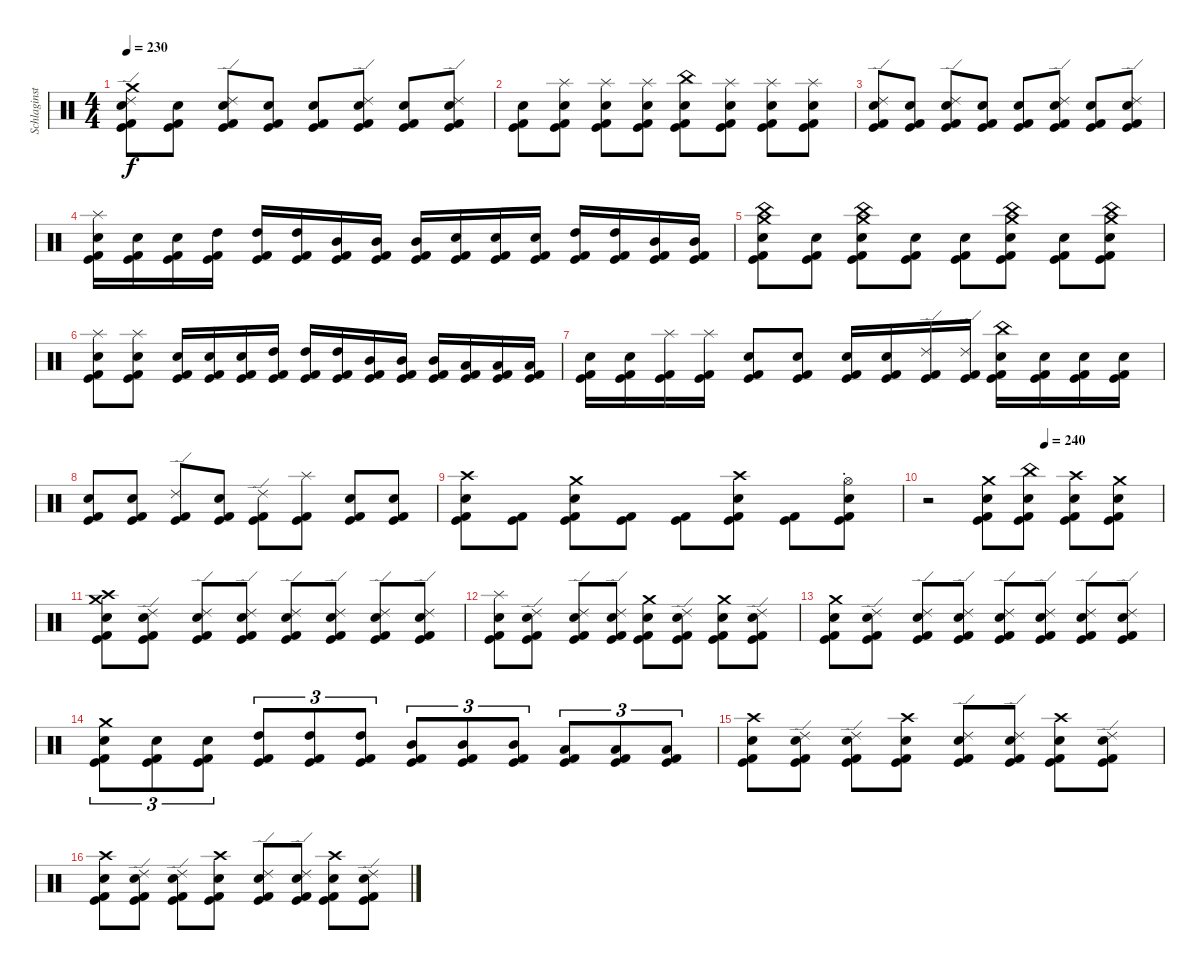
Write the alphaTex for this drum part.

\track ("Schlaginstrumente - Auswahl" "Schlaginst") {instrument percussion}
\staff {score}
\articulation defaults
\ts (4 4)
\tempo 230
\clef neutral
\ks c
("Crash medium (hit)" "Ride (edge) 2" "Electric Snare (hit)" "Kick (hit)" "Kick (hit) 2").8{dy f} ("Electric Snare (hit)" "Kick (hit)" "Kick (hit) 2").8 ("Ride (edge) 2" "Electric Snare (hit)" "Kick (hit)" "Kick (hit) 2").8 ("Electric Snare (hit)" "Kick (hit)" "Kick (hit) 2").8 ("Electric Snare (hit)" "Kick (hit)" "Kick (hit) 2").8 ("Ride (edge) 2" "Electric Snare (hit)" "Kick (hit)" "Kick (hit) 2").8 ("Electric Snare (hit)" "Kick (hit)" "Kick (hit) 2").8 ("Ride (edge) 2" "Electric Snare (hit)" "Kick (hit)" "Kick (hit) 2").8 |
("Electric Snare (hit)" "Kick (hit)" "Kick (hit) 2").8 ("Splash (hit)" "Electric Snare (hit)" "Kick (hit)" "Kick (hit) 2").8 ("Splash (hit)" "Electric Snare (hit)" "Kick (hit)" "Kick (hit) 2").8 ("Splash (hit)" "Electric Snare (hit)" "Kick (hit)" "Kick (hit) 2").8 ("China (hit)" "Electric Snare (hit)" "Kick (hit)" "Kick (hit) 2").8 ("Splash (hit)" "Electric Snare (hit)" "Kick (hit)" "Kick (hit) 2").8 ("Splash (hit)" "Electric Snare (hit)" "Kick (hit)" "Kick (hit) 2").8 ("Splash (hit)" "Electric Snare (hit)" "Kick (hit)" "Kick (hit) 2").8 |
("Ride (edge) 2" "Electric Snare (hit)" "Kick (hit)" "Kick (hit) 2").8 ("Electric Snare (hit)" "Kick (hit)" "Kick (hit) 2").8 ("Ride (edge) 2" "Electric Snare (hit)" "Kick (hit)" "Kick (hit) 2").8 ("Electric Snare (hit)" "Kick (hit)" "Kick (hit) 2").8 ("Electric Snare (hit)" "Kick (hit)" "Kick (hit) 2").8 ("Ride (edge) 2" "Electric Snare (hit)" "Kick (hit)" "Kick (hit) 2").8 ("Electric Snare (hit)" "Kick (hit)" "Kick (hit) 2").8 ("Ride (edge) 2" "Electric Snare (hit)" "Kick (hit)" "Kick (hit) 2").8 |
("Splash (hit)" "Electric Snare (hit)" "Kick (hit)" "Kick (hit) 2").16 ("Electric Snare (hit)" "Kick (hit)" "Kick (hit) 2").16 ("Electric Snare (hit)" "Kick (hit)" "Kick (hit) 2").16 ("High Tom (hit)" "Kick (hit)" "Kick (hit) 2").16 ("High Tom (hit)" "Kick (hit)" "Kick (hit) 2").16 ("High Tom (hit)" "Kick (hit)" "Kick (hit) 2").16 ("Mid Tom (hit)" "Kick (hit)" "Kick (hit) 2").16 ("Mid Tom (hit)" "Kick (hit)" "Kick (hit) 2").16 ("Mid Tom (hit)" "Kick (hit)" "Kick (hit) 2").16 ("Electric Snare (hit)" "Kick (hit)" "Kick (hit) 2").16 ("Electric Snare (hit)" "Kick (hit)" "Kick (hit) 2").16 ("Electric Snare (hit)" "Kick (hit)" "Kick (hit) 2").16 ("High Tom (hit)" "Kick (hit)" "Kick (hit) 2").16 ("High Tom (hit)" "Kick (hit)" "Kick (hit) 2").16 ("Mid Tom (hit)" "Kick (hit)" "Kick (hit) 2").16 ("Mid Tom (hit)" "Kick (hit)" "Kick (hit) 2").16 |
("Crash medium (hit)" "China (hit)" "Electric Snare (hit)" "Kick (hit)" "Kick (hit) 2").8 ("Electric Snare (hit)" "Kick (hit)" "Kick (hit) 2").8 ("Crash medium (hit)" "China (hit)" "Electric Snare (hit)" "Kick (hit)" "Kick (hit) 2").8 ("Electric Snare (hit)" "Kick (hit)" "Kick (hit) 2").8 ("Electric Snare (hit)" "Kick (hit)" "Kick (hit) 2").8 ("Crash medium (hit)" "China (hit)" "Electric Snare (hit)" "Kick (hit)" "Kick (hit) 2").8 ("Electric Snare (hit)" "Kick (hit)" "Kick (hit) 2").8 ("Crash medium (hit)" "China (hit)" "Electric Snare (hit)" "Kick (hit)" "Kick (hit) 2").8 |
("Splash (hit)" "Electric Snare (hit)" "Kick (hit)" "Kick (hit) 2").8 ("Splash (hit)" "Electric Snare (hit)" "Kick (hit)" "Kick (hit) 2").8 ("Electric Snare (hit)" "Kick (hit)" "Kick (hit) 2").16 ("Electric Snare (hit)" "Kick (hit)" "Kick (hit) 2").16 ("Electric Snare (hit)" "Kick (hit)" "Kick (hit) 2").16 ("High Tom (hit)" "Kick (hit)" "Kick (hit) 2").16 ("High Tom (hit)" "Kick (hit)" "Kick (hit) 2").16 ("High Tom (hit)" "Kick (hit)" "Kick (hit) 2").16 ("Mid Tom (hit)" "Kick (hit)" "Kick (hit) 2").16 ("Mid Tom (hit)" "Kick (hit)" "Kick (hit) 2").16 ("Mid Tom (hit)" "Kick (hit)" "Kick (hit) 2").16 ("Low Tom (hit)" "Kick (hit)" "Kick (hit) 2").16 ("Low Tom (hit)" "Kick (hit)" "Kick (hit) 2").16 ("Low Tom (hit)" "Kick (hit)" "Kick (hit) 2").16 |
("Electric Snare (hit)" "Kick (hit)" "Kick (hit) 2").16 ("Electric Snare (hit)" "Kick (hit)" "Kick (hit) 2").16 ("Splash (hit)" "Kick (hit)" "Kick (hit) 2").16 ("Splash (hit)" "Kick (hit)" "Kick (hit) 2").16 ("Electric Snare (hit)" "Kick (hit)" "Kick (hit) 2").8 ("Electric Snare (hit)" "Kick (hit)" "Kick (hit) 2").8 ("Electric Snare (hit)" "Kick (hit)" "Kick (hit) 2").16 ("Electric Snare (hit)" "Kick (hit)" "Kick (hit) 2").16 ("Ride (edge) 2" "Kick (hit)" "Kick (hit) 2").16 ("Ride (edge) 2" "Kick (hit)" "Kick (hit) 2").16 ("China (hit)" "Electric Snare (hit)" "Kick (hit)" "Kick (hit) 2").16 ("Electric Snare (hit)" "Kick (hit)" "Kick (hit) 2").16 ("Electric Snare (hit)" "Kick (hit)" "Kick (hit) 2").16 ("Electric Snare (hit)" "Kick (hit)" "Kick (hit) 2").16 |
("Electric Snare (hit)" "Kick (hit)" "Kick (hit) 2").8 ("Electric Snare (hit)" "Kick (hit)" "Kick (hit) 2").8 ("Ride (edge) 2" "Kick (hit)" "Kick (hit) 2").8 ("Electric Snare (hit)" "Kick (hit)" "Kick (hit) 2").8 ("Ride (edge) 2" "Kick (hit)" "Kick (hit) 2").8 ("Splash (hit)" "Kick (hit)" "Kick (hit) 2").8 ("Electric Snare (hit)" "Kick (hit)" "Kick (hit) 2").8 ("Electric Snare (hit)" "Kick (hit)" "Kick (hit) 2").8 |
("Crash high (hit)" "Electric Snare (hit)" "Kick (hit)" "Kick (hit) 2").8 ("Kick (hit)" "Kick (hit) 2").8 ("Crash medium (hit)" "Electric Snare (hit)" "Kick (hit)" "Kick (hit) 2").8 ("Kick (hit)" "Kick (hit) 2").8 ("Kick (hit)" "Kick (hit) 2").8 ("Crash high (hit)" "Electric Snare (hit)" "Kick (hit)" "Kick (hit) 2").8 ("Kick (hit)" "Kick (hit) 2").8 ("Hi-Hat (open)"{st} "Electric Snare (hit)" "Kick (hit)" "Kick (hit) 2").8 |
\tempo (240 0.5)
r.2 ("Crash medium (hit)" "Electric Snare (hit)" "Kick (hit)" "Kick (hit) 2").8 ("China (hit)" "Electric Snare (hit)" "Kick (hit)" "Kick (hit) 2").8 ("Crash high (hit)" "Electric Snare (hit)" "Kick (hit)" "Kick (hit) 2").8 ("Crash medium (hit)" "Electric Snare (hit)" "Kick (hit)" "Kick (hit) 2").8 |
("Crash medium (hit)" "Crash high (hit)" "Electric Snare (hit)" "Kick (hit)" "Kick (hit) 2").8 ("Ride (edge) 2" "Electric Snare (hit)" "Kick (hit)" "Kick (hit) 2").8 ("Ride (edge) 2" "Electric Snare (hit)" "Kick (hit)" "Kick (hit) 2").8 ("Ride (edge) 2" "Electric Snare (hit)" "Kick (hit)" "Kick (hit) 2").8 ("Ride (edge) 2" "Electric Snare (hit)" "Kick (hit)" "Kick (hit) 2").8 ("Ride (edge) 2" "Electric Snare (hit)" "Kick (hit)" "Kick (hit) 2").8 ("Ride (edge) 2" "Electric Snare (hit)" "Kick (hit)" "Kick (hit) 2").8 ("Ride (edge) 2" "Electric Snare (hit)" "Kick (hit)" "Kick (hit) 2").8 |
("Splash (hit)" "Electric Snare (hit)" "Kick (hit)" "Kick (hit) 2").8 ("Ride (edge) 2" "Electric Snare (hit)" "Kick (hit)" "Kick (hit) 2").8 ("Ride (edge) 2" "Electric Snare (hit)" "Kick (hit)" "Kick (hit) 2").8 ("Ride (edge) 2" "Electric Snare (hit)" "Kick (hit)" "Kick (hit) 2").8 ("Crash medium (hit)" "Electric Snare (hit)" "Kick (hit)" "Kick (hit) 2").8 ("Ride (edge) 2" "Electric Snare (hit)" "Kick (hit)" "Kick (hit) 2").8 ("Crash medium (hit)" "Electric Snare (hit)" "Kick (hit)" "Kick (hit) 2").8 ("Ride (edge) 2" "Electric Snare (hit)" "Kick (hit)" "Kick (hit) 2").8 |
("Crash medium (hit)" "Electric Snare (hit)" "Kick (hit)" "Kick (hit) 2").8 ("Ride (edge) 2" "Electric Snare (hit)" "Kick (hit)" "Kick (hit) 2").8 ("Ride (edge) 2" "Electric Snare (hit)" "Kick (hit)" "Kick (hit) 2").8 ("Ride (edge) 2" "Electric Snare (hit)" "Kick (hit)" "Kick (hit) 2").8 ("Ride (edge) 2" "Electric Snare (hit)" "Kick (hit)" "Kick (hit) 2").8 ("Ride (edge) 2" "Electric Snare (hit)" "Kick (hit)" "Kick (hit) 2").8 ("Ride (edge) 2" "Electric Snare (hit)" "Kick (hit)" "Kick (hit) 2").8 ("Ride (edge) 2" "Electric Snare (hit)" "Kick (hit)" "Kick (hit) 2").8 |
("Crash medium (hit)" "Electric Snare (hit)" "Kick (hit)" "Kick (hit) 2").8{tu (3 2)} ("Electric Snare (hit)" "Kick (hit)" "Kick (hit) 2").8{tu (3 2)} ("Electric Snare (hit)" "Kick (hit)" "Kick (hit) 2").8{tu (3 2)} ("High Tom (hit)" "Kick (hit)" "Kick (hit) 2").8{tu (3 2)} ("High Tom (hit)" "Kick (hit)" "Kick (hit) 2").8{tu (3 2)} ("High Tom (hit)" "Kick (hit)" "Kick (hit) 2").8{tu (3 2)} ("Mid Tom (hit)" "Kick (hit)" "Kick (hit) 2").8{tu (3 2)} ("Mid Tom (hit)" "Kick (hit)" "Kick (hit) 2").8{tu (3 2)} ("Mid Tom (hit)" "Kick (hit)" "Kick (hit) 2").8{tu (3 2)} ("Low Tom (hit)" "Kick (hit)" "Kick (hit) 2").8{tu (3 2)} ("Low Tom (hit)" "Kick (hit)" "Kick (hit) 2").8{tu (3 2)} ("Low Tom (hit)" "Kick (hit)" "Kick (hit) 2").8{tu (3 2)} |
("Crash high (hit)" "Electric Snare (hit)" "Kick (hit)" "Kick (hit) 2").8 ("Ride (edge) 2" "Electric Snare (hit)" "Kick (hit)" "Kick (hit) 2").8 ("Ride (edge) 2" "Electric Snare (hit)" "Kick (hit)" "Kick (hit) 2").8 ("Crash high (hit)" "Electric Snare (hit)" "Kick (hit)" "Kick (hit) 2").8 ("Ride (edge) 2" "Electric Snare (hit)" "Kick (hit)" "Kick (hit) 2").8 ("Ride (edge) 2" "Electric Snare (hit)" "Kick (hit)" "Kick (hit) 2").8 ("Crash high (hit)" "Electric Snare (hit)" "Kick (hit)" "Kick (hit) 2").8 ("Ride (edge) 2" "Electric Snare (hit)" "Kick (hit)" "Kick (hit) 2").8 |
("Crash high (hit)" "Electric Snare (hit)" "Kick (hit)" "Kick (hit) 2").8 ("Ride (edge) 2" "Electric Snare (hit)" "Kick (hit)" "Kick (hit) 2").8 ("Ride (edge) 2" "Electric Snare (hit)" "Kick (hit)" "Kick (hit) 2").8 ("Crash high (hit)" "Electric Snare (hit)" "Kick (hit)" "Kick (hit) 2").8 ("Ride (edge) 2" "Electric Snare (hit)" "Kick (hit)" "Kick (hit) 2").8 ("Ride (edge) 2" "Electric Snare (hit)" "Kick (hit)" "Kick (hit) 2").8 ("Crash high (hit)" "Electric Snare (hit)" "Kick (hit)" "Kick (hit) 2").8 ("Ride (edge) 2" "Electric Snare (hit)" "Kick (hit)" "Kick (hit) 2").8
